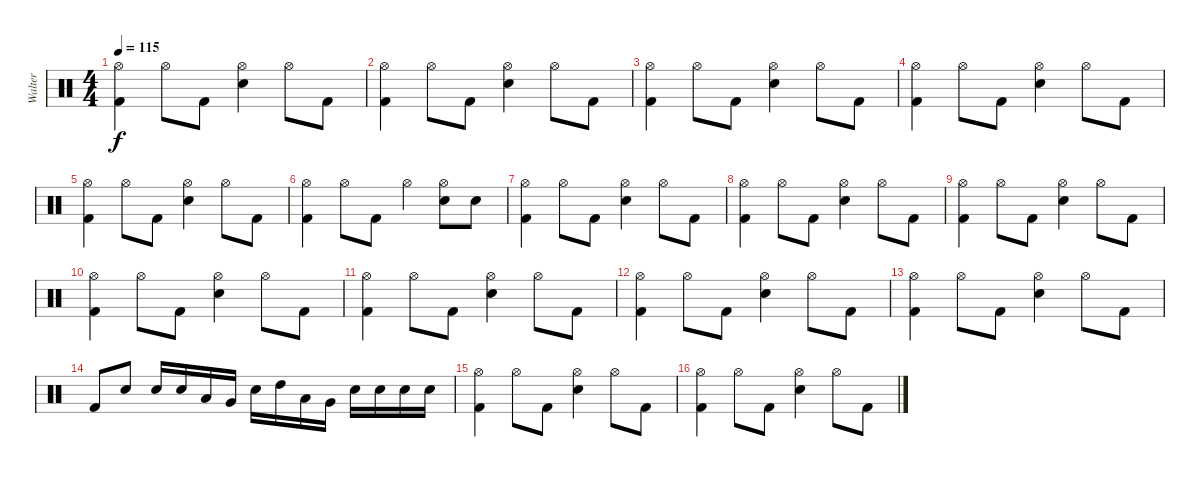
\track ("Walter" "Walter") {instrument percussion}
\staff {score}
\articulation defaults
\ts (4 4)
\tempo 115
\clef neutral
\ks c
("Kick (hit) 2" "Hi-Hat (open)").4{dy f} "Hi-Hat (open)".8 "Kick (hit) 2".8 ("Snare (hit) 2" "Hi-Hat (open)").4 "Hi-Hat (open)".8 "Kick (hit) 2".8 |
("Kick (hit) 2" "Hi-Hat (open)").4 "Hi-Hat (open)".8 "Kick (hit) 2".8 ("Snare (hit) 2" "Hi-Hat (open)").4 "Hi-Hat (open)".8 "Kick (hit) 2".8 |
("Kick (hit) 2" "Hi-Hat (open)").4 "Hi-Hat (open)".8 "Kick (hit) 2".8 ("Snare (hit) 2" "Hi-Hat (open)").4 "Hi-Hat (open)".8 "Kick (hit) 2".8 |
("Kick (hit) 2" "Hi-Hat (open)").4 "Hi-Hat (open)".8 "Kick (hit) 2".8 ("Snare (hit) 2" "Hi-Hat (open)").4 "Hi-Hat (open)".8 "Kick (hit) 2".8 |
("Kick (hit) 2" "Hi-Hat (open)").4 "Hi-Hat (open)".8 "Kick (hit) 2".8 ("Snare (hit) 2" "Hi-Hat (open)").4 "Hi-Hat (open)".8 "Kick (hit) 2".8 |
("Kick (hit) 2" "Hi-Hat (open)").4 "Hi-Hat (open)".8 "Kick (hit) 2".8 "Hi-Hat (open)".4 ("Snare (hit) 2" "Hi-Hat (open)").8 "Snare (hit) 2".8 |
("Kick (hit) 2" "Hi-Hat (open)").4 "Hi-Hat (open)".8 "Kick (hit) 2".8 ("Snare (hit) 2" "Hi-Hat (open)").4 "Hi-Hat (open)".8 "Kick (hit) 2".8 |
("Kick (hit) 2" "Hi-Hat (open)").4 "Hi-Hat (open)".8 "Kick (hit) 2".8 ("Snare (hit) 2" "Hi-Hat (open)").4 "Hi-Hat (open)".8 "Kick (hit) 2".8 |
("Kick (hit) 2" "Hi-Hat (open)").4 "Hi-Hat (open)".8 "Kick (hit) 2".8 ("Snare (hit) 2" "Hi-Hat (open)").4 "Hi-Hat (open)".8 "Kick (hit) 2".8 |
("Kick (hit) 2" "Hi-Hat (open)").4 "Hi-Hat (open)".8 "Kick (hit) 2".8 ("Snare (hit) 2" "Hi-Hat (open)").4 "Hi-Hat (open)".8 "Kick (hit) 2".8 |
("Kick (hit) 2" "Hi-Hat (open)").4 "Hi-Hat (open)".8 "Kick (hit) 2".8 ("Snare (hit) 2" "Hi-Hat (open)").4 "Hi-Hat (open)".8 "Kick (hit) 2".8 |
("Kick (hit) 2" "Hi-Hat (open)").4 "Hi-Hat (open)".8 "Kick (hit) 2".8 ("Snare (hit) 2" "Hi-Hat (open)").4 "Hi-Hat (open)".8 "Kick (hit) 2".8 |
("Kick (hit) 2" "Hi-Hat (open)").4 "Hi-Hat (open)".8 "Kick (hit) 2".8 ("Snare (hit) 2" "Hi-Hat (open)").4 "Hi-Hat (open)".8 "Kick (hit) 2".8 |
"Kick (hit) 2".8 "Snare (hit) 2".8 "Snare (hit) 2".16 "Snare (hit) 2".16 "Low Tom (hit)".16 "Very Low Tom (hit)".16 "Snare (hit) 2".16 "High Tom (hit)".16 "Low Tom (hit)".16 "Very Low Tom (hit)".16 "Snare (hit) 2".16 "Snare (hit) 2".16 "Snare (hit) 2".16 "Snare (hit) 2".16 |
("Kick (hit) 2" "Hi-Hat (open)").4 "Hi-Hat (open)".8 "Kick (hit) 2".8 ("Snare (hit) 2" "Hi-Hat (open)").4 "Hi-Hat (open)".8 "Kick (hit) 2".8 |
("Kick (hit) 2" "Hi-Hat (open)").4 "Hi-Hat (open)".8 "Kick (hit) 2".8 ("Snare (hit) 2" "Hi-Hat (open)").4 "Hi-Hat (open)".8 "Kick (hit) 2".8
